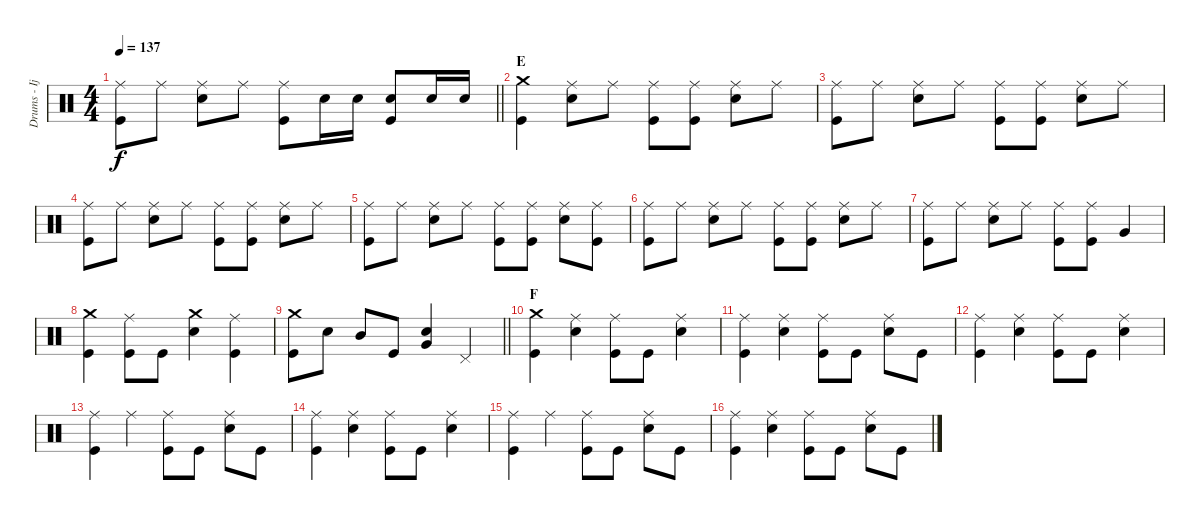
\track ("Drums - Ijichi" "Drums - Ij") {instrument percussion}
\staff {score}
\articulation defaults
\ts (4 4)
\tempo 137
\clef neutral
\barLineRight lightlight
\ks c
("Ride (middle)" "Kick (hit)").8{dy f} "Ride (middle)".8 ("Ride (middle)" "Electric Snare (hit)").8 "Ride (middle)".8 ("Ride (middle)" "Kick (hit)").8 "Electric Snare (hit)".16 "Electric Snare (hit)".16 ("Electric Snare (hit)" "Kick (hit)").8 "Electric Snare (hit)".16 "Electric Snare (hit)".16 |
\section ("" "E")
("Crash medium (hit)" "Kick (hit)").4 ("Ride (middle)" "Electric Snare (hit)").8 "Ride (middle)".8 ("Ride (middle)" "Kick (hit)").8 ("Ride (middle)" "Kick (hit)").8 ("Ride (middle)" "Electric Snare (hit)").8 "Ride (middle)".8 |
("Ride (middle)" "Kick (hit)").8 "Ride (middle)".8 ("Ride (middle)" "Electric Snare (hit)").8 "Ride (middle)".8 ("Ride (middle)" "Kick (hit)").8 ("Ride (middle)" "Kick (hit)").8 ("Ride (middle)" "Electric Snare (hit)").8 "Ride (middle)".8 |
("Ride (middle)" "Kick (hit)").8 "Ride (middle)".8 ("Ride (middle)" "Electric Snare (hit)").8 "Ride (middle)".8 ("Ride (middle)" "Kick (hit)").8 ("Ride (middle)" "Kick (hit)").8 ("Ride (middle)" "Electric Snare (hit)").8 "Ride (middle)".8 |
("Ride (middle)" "Kick (hit)").8 "Ride (middle)".8 ("Ride (middle)" "Electric Snare (hit)").8 "Ride (middle)".8 ("Ride (middle)" "Kick (hit)").8 ("Ride (middle)" "Kick (hit)").8 ("Ride (middle)" "Electric Snare (hit)").8 ("Ride (middle)" "Kick (hit)").8 |
("Ride (middle)" "Kick (hit)").8 "Ride (middle)".8 ("Ride (middle)" "Electric Snare (hit)").8 "Ride (middle)".8 ("Ride (middle)" "Kick (hit)").8 ("Ride (middle)" "Kick (hit)").8 ("Ride (middle)" "Electric Snare (hit)").8 "Ride (middle)".8 |
("Ride (middle)" "Kick (hit)").8 "Ride (middle)".8 ("Ride (middle)" "Electric Snare (hit)").8 "Ride (middle)".8 ("Ride (middle)" "Kick (hit)").8 ("Ride (middle)" "Kick (hit)").8 "Very Low Tom (hit)".4 |
("Crash medium (hit)" "Kick (hit)").4 ("Ride (middle)" "Kick (hit)").8 "Kick (hit)".8 ("Crash medium (hit)" "Electric Snare (hit)").4 ("Ride (middle)" "Kick (hit)").4 |
\barLineRight lightlight
("Crash medium (hit)" "Kick (hit)").8 "Electric Snare (hit)".8 "Mid Tom (hit)".8 "Kick (hit)".8 ("Electric Snare (hit)" "Very Low Tom (hit)").4 "Pedal Hi-Hat (hit)".4 |
\section ("" "F")
("Crash medium (hit)" "Kick (hit)").4 ("Ride (middle)" "Electric Snare (hit)").4 ("Ride (middle)" "Kick (hit)").8 "Kick (hit)".8 ("Ride (middle)" "Electric Snare (hit)").4 |
("Ride (middle)" "Kick (hit)").4 ("Ride (middle)" "Electric Snare (hit)").4 ("Ride (middle)" "Kick (hit)").8 "Kick (hit)".8 ("Ride (middle)" "Electric Snare (hit)").8 "Kick (hit)".8 |
("Ride (middle)" "Kick (hit)").4 ("Ride (middle)" "Electric Snare (hit)").4 ("Ride (middle)" "Kick (hit)").8 "Kick (hit)".8 ("Ride (middle)" "Electric Snare (hit)").4 |
("Ride (middle)" "Kick (hit)").4 "Ride (middle)".4 ("Ride (middle)" "Kick (hit)").8 "Kick (hit)".8 ("Ride (middle)" "Electric Snare (hit)").8 "Kick (hit)".8 |
("Ride (middle)" "Kick (hit)").4 ("Ride (middle)" "Electric Snare (hit)").4 ("Ride (middle)" "Kick (hit)").8 "Kick (hit)".8 ("Ride (middle)" "Electric Snare (hit)").4 |
("Ride (middle)" "Kick (hit)").4 "Ride (middle)".4 ("Ride (middle)" "Kick (hit)").8 "Kick (hit)".8 ("Ride (middle)" "Electric Snare (hit)").8 "Kick (hit)".8 |
("Ride (middle)" "Kick (hit)").4 ("Ride (middle)" "Electric Snare (hit)").4 ("Ride (middle)" "Kick (hit)").8 "Kick (hit)".8 ("Ride (middle)" "Electric Snare (hit)").8 "Kick (hit)".8
